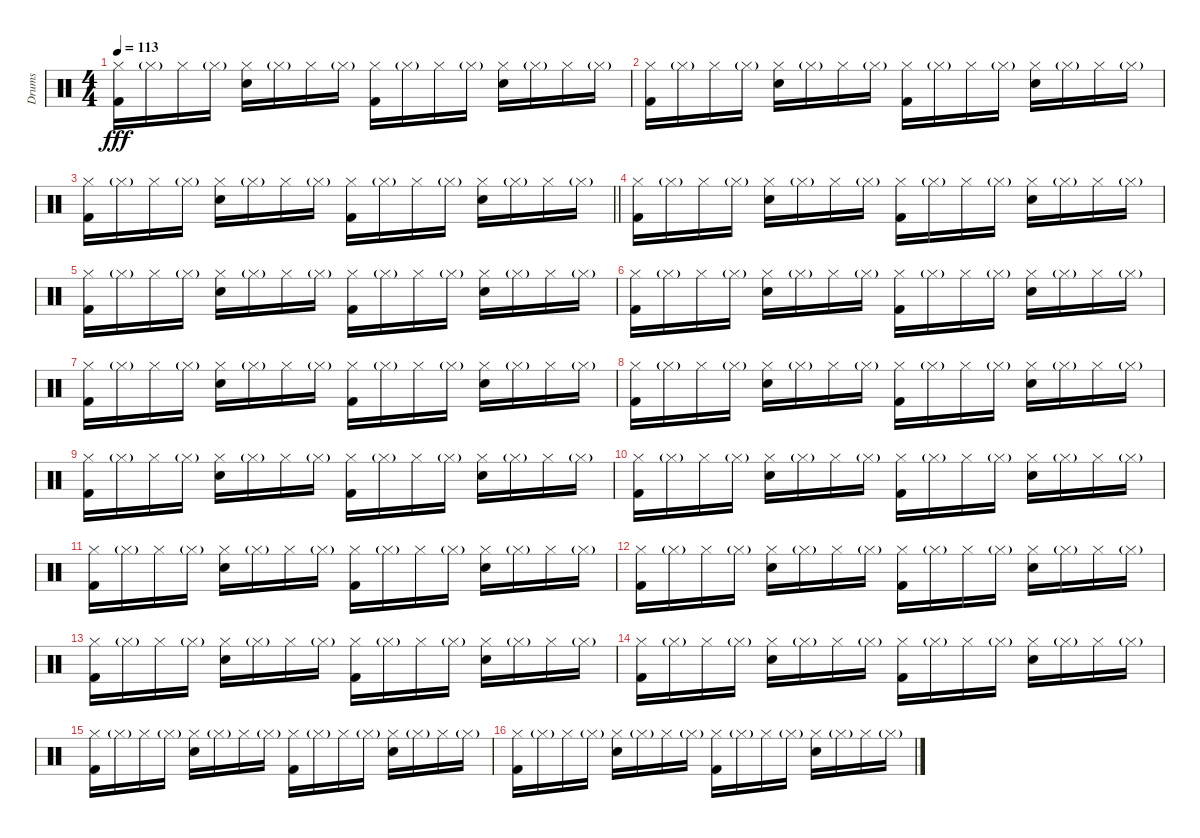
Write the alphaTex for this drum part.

\track ("Drums" "Drums") {instrument percussion}
\staff {score}
\articulation defaults
\ts (4 4)
\tempo 113
\clef neutral
\ks c
("Hi-Hat (closed)" "Kick (hit) 2").16{dy fff} "Hi-Hat (closed)"{g}.16 "Hi-Hat (closed)".16 "Hi-Hat (closed)"{g}.16 ("Hi-Hat (closed)" "Electric Snare (hit)").16 "Hi-Hat (closed)"{g}.16 "Hi-Hat (closed)".16 "Hi-Hat (closed)"{g}.16 ("Hi-Hat (closed)" "Kick (hit) 2").16 "Hi-Hat (closed)"{g}.16 "Hi-Hat (closed)".16 "Hi-Hat (closed)"{g}.16 ("Hi-Hat (closed)" "Electric Snare (hit)").16 "Hi-Hat (closed)"{g}.16 "Hi-Hat (closed)".16 "Hi-Hat (closed)"{g}.16 |
("Hi-Hat (closed)" "Kick (hit) 2").16 "Hi-Hat (closed)"{g}.16 "Hi-Hat (closed)".16 "Hi-Hat (closed)"{g}.16 ("Hi-Hat (closed)" "Electric Snare (hit)").16 "Hi-Hat (closed)"{g}.16 "Hi-Hat (closed)".16 "Hi-Hat (closed)"{g}.16 ("Hi-Hat (closed)" "Kick (hit) 2").16 "Hi-Hat (closed)"{g}.16 "Hi-Hat (closed)".16 "Hi-Hat (closed)"{g}.16 ("Hi-Hat (closed)" "Electric Snare (hit)").16 "Hi-Hat (closed)"{g}.16 "Hi-Hat (closed)".16 "Hi-Hat (closed)"{g}.16 |
\barLineRight lightlight
("Hi-Hat (closed)" "Kick (hit) 2").16 "Hi-Hat (closed)"{g}.16 "Hi-Hat (closed)".16 "Hi-Hat (closed)"{g}.16 ("Hi-Hat (closed)" "Electric Snare (hit)").16 "Hi-Hat (closed)"{g}.16 "Hi-Hat (closed)".16 "Hi-Hat (closed)"{g}.16 ("Hi-Hat (closed)" "Kick (hit) 2").16 "Hi-Hat (closed)"{g}.16 "Hi-Hat (closed)".16 "Hi-Hat (closed)"{g}.16 ("Hi-Hat (closed)" "Electric Snare (hit)").16 "Hi-Hat (closed)"{g}.16 "Hi-Hat (closed)".16 "Hi-Hat (closed)"{g}.16 |
("Hi-Hat (closed)" "Kick (hit) 2").16 "Hi-Hat (closed)"{g}.16 "Hi-Hat (closed)".16 "Hi-Hat (closed)"{g}.16 ("Hi-Hat (closed)" "Electric Snare (hit)").16 "Hi-Hat (closed)"{g}.16 "Hi-Hat (closed)".16 "Hi-Hat (closed)"{g}.16 ("Hi-Hat (closed)" "Kick (hit) 2").16 "Hi-Hat (closed)"{g}.16 "Hi-Hat (closed)".16 "Hi-Hat (closed)"{g}.16 ("Hi-Hat (closed)" "Electric Snare (hit)").16 "Hi-Hat (closed)"{g}.16 "Hi-Hat (closed)".16 "Hi-Hat (closed)"{g}.16 |
("Hi-Hat (closed)" "Kick (hit) 2").16 "Hi-Hat (closed)"{g}.16 "Hi-Hat (closed)".16 "Hi-Hat (closed)"{g}.16 ("Hi-Hat (closed)" "Electric Snare (hit)").16 "Hi-Hat (closed)"{g}.16 "Hi-Hat (closed)".16 "Hi-Hat (closed)"{g}.16 ("Hi-Hat (closed)" "Kick (hit) 2").16 "Hi-Hat (closed)"{g}.16 "Hi-Hat (closed)".16 "Hi-Hat (closed)"{g}.16 ("Hi-Hat (closed)" "Electric Snare (hit)").16 "Hi-Hat (closed)"{g}.16 "Hi-Hat (closed)".16 "Hi-Hat (closed)"{g}.16 |
("Hi-Hat (closed)" "Kick (hit) 2").16 "Hi-Hat (closed)"{g}.16 "Hi-Hat (closed)".16 "Hi-Hat (closed)"{g}.16 ("Hi-Hat (closed)" "Electric Snare (hit)").16 "Hi-Hat (closed)"{g}.16 "Hi-Hat (closed)".16 "Hi-Hat (closed)"{g}.16 ("Hi-Hat (closed)" "Kick (hit) 2").16 "Hi-Hat (closed)"{g}.16 "Hi-Hat (closed)".16 "Hi-Hat (closed)"{g}.16 ("Hi-Hat (closed)" "Electric Snare (hit)").16 "Hi-Hat (closed)"{g}.16 "Hi-Hat (closed)".16 "Hi-Hat (closed)"{g}.16 |
("Hi-Hat (closed)" "Kick (hit) 2").16 "Hi-Hat (closed)"{g}.16 "Hi-Hat (closed)".16 "Hi-Hat (closed)"{g}.16 ("Hi-Hat (closed)" "Electric Snare (hit)").16 "Hi-Hat (closed)"{g}.16 "Hi-Hat (closed)".16 "Hi-Hat (closed)"{g}.16 ("Hi-Hat (closed)" "Kick (hit) 2").16 "Hi-Hat (closed)"{g}.16 "Hi-Hat (closed)".16 "Hi-Hat (closed)"{g}.16 ("Hi-Hat (closed)" "Electric Snare (hit)").16 "Hi-Hat (closed)"{g}.16 "Hi-Hat (closed)".16 "Hi-Hat (closed)"{g}.16 |
("Hi-Hat (closed)" "Kick (hit) 2").16 "Hi-Hat (closed)"{g}.16 "Hi-Hat (closed)".16 "Hi-Hat (closed)"{g}.16 ("Hi-Hat (closed)" "Electric Snare (hit)").16 "Hi-Hat (closed)"{g}.16 "Hi-Hat (closed)".16 "Hi-Hat (closed)"{g}.16 ("Hi-Hat (closed)" "Kick (hit) 2").16 "Hi-Hat (closed)"{g}.16 "Hi-Hat (closed)".16 "Hi-Hat (closed)"{g}.16 ("Hi-Hat (closed)" "Electric Snare (hit)").16 "Hi-Hat (closed)"{g}.16 "Hi-Hat (closed)".16 "Hi-Hat (closed)"{g}.16 |
("Hi-Hat (closed)" "Kick (hit) 2").16 "Hi-Hat (closed)"{g}.16 "Hi-Hat (closed)".16 "Hi-Hat (closed)"{g}.16 ("Hi-Hat (closed)" "Electric Snare (hit)").16 "Hi-Hat (closed)"{g}.16 "Hi-Hat (closed)".16 "Hi-Hat (closed)"{g}.16 ("Hi-Hat (closed)" "Kick (hit) 2").16 "Hi-Hat (closed)"{g}.16 "Hi-Hat (closed)".16 "Hi-Hat (closed)"{g}.16 ("Hi-Hat (closed)" "Electric Snare (hit)").16 "Hi-Hat (closed)"{g}.16 "Hi-Hat (closed)".16 "Hi-Hat (closed)"{g}.16 |
("Hi-Hat (closed)" "Kick (hit) 2").16 "Hi-Hat (closed)"{g}.16 "Hi-Hat (closed)".16 "Hi-Hat (closed)"{g}.16 ("Hi-Hat (closed)" "Electric Snare (hit)").16 "Hi-Hat (closed)"{g}.16 "Hi-Hat (closed)".16 "Hi-Hat (closed)"{g}.16 ("Hi-Hat (closed)" "Kick (hit) 2").16 "Hi-Hat (closed)"{g}.16 "Hi-Hat (closed)".16 "Hi-Hat (closed)"{g}.16 ("Hi-Hat (closed)" "Electric Snare (hit)").16 "Hi-Hat (closed)"{g}.16 "Hi-Hat (closed)".16 "Hi-Hat (closed)"{g}.16 |
("Hi-Hat (closed)" "Kick (hit) 2").16 "Hi-Hat (closed)"{g}.16 "Hi-Hat (closed)".16 "Hi-Hat (closed)"{g}.16 ("Hi-Hat (closed)" "Electric Snare (hit)").16 "Hi-Hat (closed)"{g}.16 "Hi-Hat (closed)".16 "Hi-Hat (closed)"{g}.16 ("Hi-Hat (closed)" "Kick (hit) 2").16 "Hi-Hat (closed)"{g}.16 "Hi-Hat (closed)".16 "Hi-Hat (closed)"{g}.16 ("Hi-Hat (closed)" "Electric Snare (hit)").16 "Hi-Hat (closed)"{g}.16 "Hi-Hat (closed)".16 "Hi-Hat (closed)"{g}.16 |
("Hi-Hat (closed)" "Kick (hit) 2").16 "Hi-Hat (closed)"{g}.16 "Hi-Hat (closed)".16 "Hi-Hat (closed)"{g}.16 ("Hi-Hat (closed)" "Electric Snare (hit)").16 "Hi-Hat (closed)"{g}.16 "Hi-Hat (closed)".16 "Hi-Hat (closed)"{g}.16 ("Hi-Hat (closed)" "Kick (hit) 2").16 "Hi-Hat (closed)"{g}.16 "Hi-Hat (closed)".16 "Hi-Hat (closed)"{g}.16 ("Hi-Hat (closed)" "Electric Snare (hit)").16 "Hi-Hat (closed)"{g}.16 "Hi-Hat (closed)".16 "Hi-Hat (closed)"{g}.16 |
("Hi-Hat (closed)" "Kick (hit) 2").16 "Hi-Hat (closed)"{g}.16 "Hi-Hat (closed)".16 "Hi-Hat (closed)"{g}.16 ("Hi-Hat (closed)" "Electric Snare (hit)").16 "Hi-Hat (closed)"{g}.16 "Hi-Hat (closed)".16 "Hi-Hat (closed)"{g}.16 ("Hi-Hat (closed)" "Kick (hit) 2").16 "Hi-Hat (closed)"{g}.16 "Hi-Hat (closed)".16 "Hi-Hat (closed)"{g}.16 ("Hi-Hat (closed)" "Electric Snare (hit)").16 "Hi-Hat (closed)"{g}.16 "Hi-Hat (closed)".16 "Hi-Hat (closed)"{g}.16 |
("Hi-Hat (closed)" "Kick (hit) 2").16 "Hi-Hat (closed)"{g}.16 "Hi-Hat (closed)".16 "Hi-Hat (closed)"{g}.16 ("Hi-Hat (closed)" "Electric Snare (hit)").16 "Hi-Hat (closed)"{g}.16 "Hi-Hat (closed)".16 "Hi-Hat (closed)"{g}.16 ("Hi-Hat (closed)" "Kick (hit) 2").16 "Hi-Hat (closed)"{g}.16 "Hi-Hat (closed)".16 "Hi-Hat (closed)"{g}.16 ("Hi-Hat (closed)" "Electric Snare (hit)").16 "Hi-Hat (closed)"{g}.16 "Hi-Hat (closed)".16 "Hi-Hat (closed)"{g}.16 |
("Hi-Hat (closed)" "Kick (hit) 2").16 "Hi-Hat (closed)"{g}.16 "Hi-Hat (closed)".16 "Hi-Hat (closed)"{g}.16 ("Hi-Hat (closed)" "Electric Snare (hit)").16 "Hi-Hat (closed)"{g}.16 "Hi-Hat (closed)".16 "Hi-Hat (closed)"{g}.16 ("Hi-Hat (closed)" "Kick (hit) 2").16 "Hi-Hat (closed)"{g}.16 "Hi-Hat (closed)".16 "Hi-Hat (closed)"{g}.16 ("Hi-Hat (closed)" "Electric Snare (hit)").16 "Hi-Hat (closed)"{g}.16 "Hi-Hat (closed)".16 "Hi-Hat (closed)"{g}.16 |
("Hi-Hat (closed)" "Kick (hit) 2").16 "Hi-Hat (closed)"{g}.16 "Hi-Hat (closed)".16 "Hi-Hat (closed)"{g}.16 ("Hi-Hat (closed)" "Electric Snare (hit)").16 "Hi-Hat (closed)"{g}.16 "Hi-Hat (closed)".16 "Hi-Hat (closed)"{g}.16 ("Hi-Hat (closed)" "Kick (hit) 2").16 "Hi-Hat (closed)"{g}.16 "Hi-Hat (closed)".16 "Hi-Hat (closed)"{g}.16 ("Hi-Hat (closed)" "Electric Snare (hit)").16 "Hi-Hat (closed)"{g}.16 "Hi-Hat (closed)".16 "Hi-Hat (closed)"{g}.16
